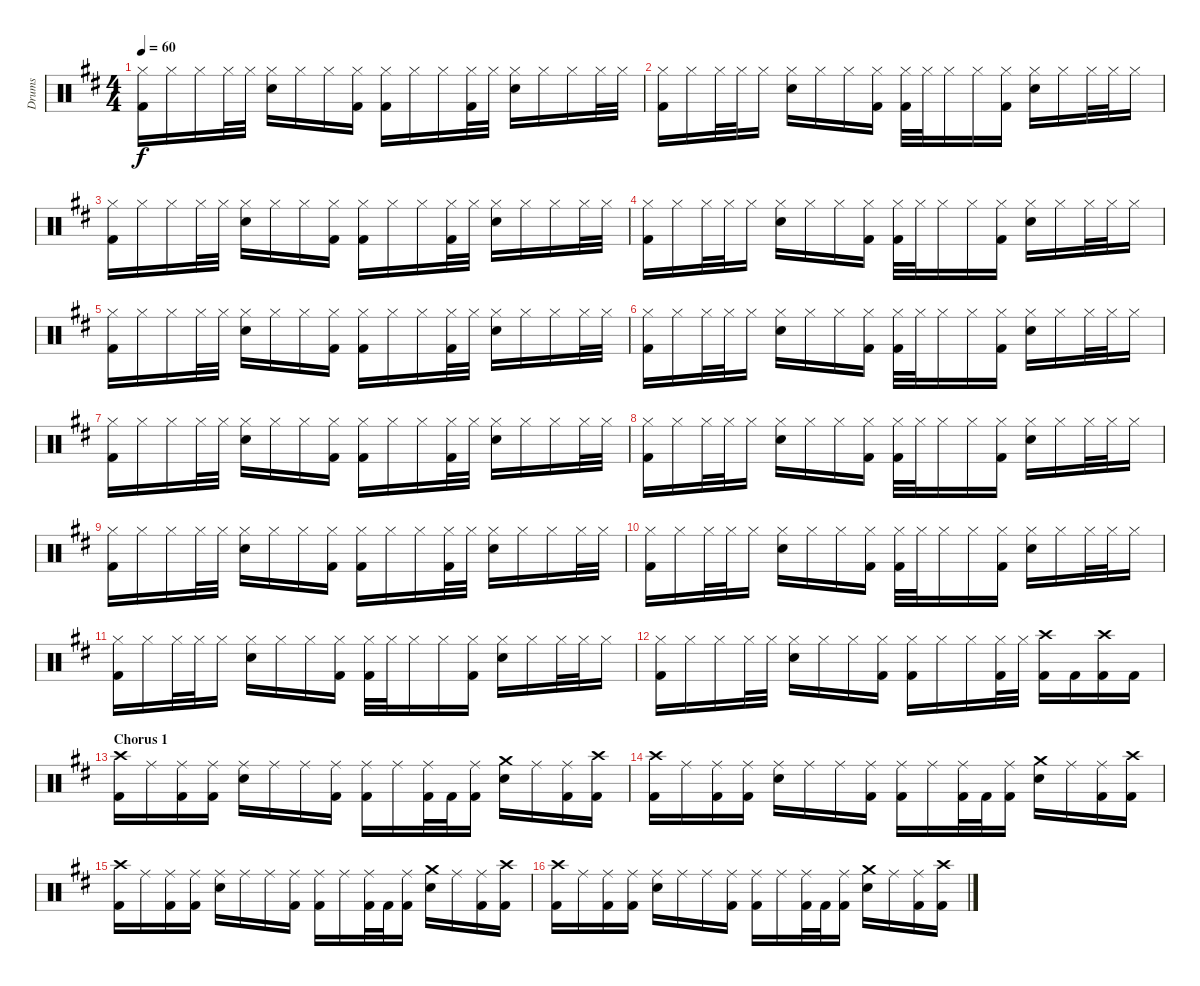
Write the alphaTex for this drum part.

\track ("Drums" "Drums") {instrument percussion}
\staff {score}
\articulation defaults
\ts (4 4)
\tempo 60
\clef neutral
\ks bminor
("Hi-Hat (closed)" "Kick (hit) 2").16{dy f} "Hi-Hat (closed)".16 "Hi-Hat (closed)".16 "Hi-Hat (closed)".32 "Hi-Hat (closed)".32 ("Hi-Hat (closed)" "Snare (hit) 2").16 "Hi-Hat (closed)".16 "Hi-Hat (closed)".16 ("Hi-Hat (closed)" "Kick (hit) 2").16 ("Hi-Hat (closed)" "Kick (hit) 2").16 "Hi-Hat (closed)".16 "Hi-Hat (closed)".16 ("Hi-Hat (closed)" "Kick (hit) 2").32 "Hi-Hat (closed)".32 ("Hi-Hat (closed)" "Snare (hit) 2").16 "Hi-Hat (closed)".16 "Hi-Hat (closed)".16 "Hi-Hat (closed)".32 "Hi-Hat (closed)".32 |
("Hi-Hat (closed)" "Kick (hit) 2").16 "Hi-Hat (closed)".16 "Hi-Hat (closed)".32 "Hi-Hat (closed)".32 "Hi-Hat (closed)".16 ("Hi-Hat (closed)" "Snare (hit) 2").16 "Hi-Hat (closed)".16 "Hi-Hat (closed)".16 ("Hi-Hat (closed)" "Kick (hit) 2").16 ("Hi-Hat (closed)" "Kick (hit) 2").32 "Hi-Hat (closed)".32 "Hi-Hat (closed)".16 "Hi-Hat (closed)".16 ("Hi-Hat (closed)" "Kick (hit) 2").16 ("Hi-Hat (closed)" "Snare (hit) 2").16 "Hi-Hat (closed)".16 "Hi-Hat (closed)".32 "Hi-Hat (closed)".32 "Hi-Hat (closed)".16 |
("Hi-Hat (closed)" "Kick (hit) 2").16 "Hi-Hat (closed)".16 "Hi-Hat (closed)".16 "Hi-Hat (closed)".32 "Hi-Hat (closed)".32 ("Hi-Hat (closed)" "Snare (hit) 2").16 "Hi-Hat (closed)".16 "Hi-Hat (closed)".16 ("Hi-Hat (closed)" "Kick (hit) 2").16 ("Hi-Hat (closed)" "Kick (hit) 2").16 "Hi-Hat (closed)".16 "Hi-Hat (closed)".16 ("Hi-Hat (closed)" "Kick (hit) 2").32 "Hi-Hat (closed)".32 ("Hi-Hat (closed)" "Snare (hit) 2").16 "Hi-Hat (closed)".16 "Hi-Hat (closed)".16 "Hi-Hat (closed)".32 "Hi-Hat (closed)".32 |
("Hi-Hat (closed)" "Kick (hit) 2").16 "Hi-Hat (closed)".16 "Hi-Hat (closed)".32 "Hi-Hat (closed)".32 "Hi-Hat (closed)".16 ("Hi-Hat (closed)" "Snare (hit) 2").16 "Hi-Hat (closed)".16 "Hi-Hat (closed)".16 ("Hi-Hat (closed)" "Kick (hit) 2").16 ("Hi-Hat (closed)" "Kick (hit) 2").32 "Hi-Hat (closed)".32 "Hi-Hat (closed)".16 "Hi-Hat (closed)".16 ("Hi-Hat (closed)" "Kick (hit) 2").16 ("Hi-Hat (closed)" "Snare (hit) 2").16 "Hi-Hat (closed)".16 "Hi-Hat (closed)".32 "Hi-Hat (closed)".32 "Hi-Hat (closed)".16 |
("Hi-Hat (closed)" "Kick (hit) 2").16 "Hi-Hat (closed)".16 "Hi-Hat (closed)".16 "Hi-Hat (closed)".32 "Hi-Hat (closed)".32 ("Hi-Hat (closed)" "Snare (hit) 2").16 "Hi-Hat (closed)".16 "Hi-Hat (closed)".16 ("Hi-Hat (closed)" "Kick (hit) 2").16 ("Hi-Hat (closed)" "Kick (hit) 2").16 "Hi-Hat (closed)".16 "Hi-Hat (closed)".16 ("Hi-Hat (closed)" "Kick (hit) 2").32 "Hi-Hat (closed)".32 ("Hi-Hat (closed)" "Snare (hit) 2").16 "Hi-Hat (closed)".16 "Hi-Hat (closed)".16 "Hi-Hat (closed)".32 "Hi-Hat (closed)".32 |
("Hi-Hat (closed)" "Kick (hit) 2").16 "Hi-Hat (closed)".16 "Hi-Hat (closed)".32 "Hi-Hat (closed)".32 "Hi-Hat (closed)".16 ("Hi-Hat (closed)" "Snare (hit) 2").16 "Hi-Hat (closed)".16 "Hi-Hat (closed)".16 ("Hi-Hat (closed)" "Kick (hit) 2").16 ("Hi-Hat (closed)" "Kick (hit) 2").32 "Hi-Hat (closed)".32 "Hi-Hat (closed)".16 "Hi-Hat (closed)".16 ("Hi-Hat (closed)" "Kick (hit) 2").16 ("Hi-Hat (closed)" "Snare (hit) 2").16 "Hi-Hat (closed)".16 "Hi-Hat (closed)".32 "Hi-Hat (closed)".32 "Hi-Hat (closed)".16 |
("Hi-Hat (closed)" "Kick (hit) 2").16 "Hi-Hat (closed)".16 "Hi-Hat (closed)".16 "Hi-Hat (closed)".32 "Hi-Hat (closed)".32 ("Hi-Hat (closed)" "Snare (hit) 2").16 "Hi-Hat (closed)".16 "Hi-Hat (closed)".16 ("Hi-Hat (closed)" "Kick (hit) 2").16 ("Hi-Hat (closed)" "Kick (hit) 2").16 "Hi-Hat (closed)".16 "Hi-Hat (closed)".16 ("Hi-Hat (closed)" "Kick (hit) 2").32 "Hi-Hat (closed)".32 ("Hi-Hat (closed)" "Snare (hit) 2").16 "Hi-Hat (closed)".16 "Hi-Hat (closed)".16 "Hi-Hat (closed)".32 "Hi-Hat (closed)".32 |
("Hi-Hat (closed)" "Kick (hit) 2").16 "Hi-Hat (closed)".16 "Hi-Hat (closed)".32 "Hi-Hat (closed)".32 "Hi-Hat (closed)".16 ("Hi-Hat (closed)" "Snare (hit) 2").16 "Hi-Hat (closed)".16 "Hi-Hat (closed)".16 ("Hi-Hat (closed)" "Kick (hit) 2").16 ("Hi-Hat (closed)" "Kick (hit) 2").32 "Hi-Hat (closed)".32 "Hi-Hat (closed)".16 "Hi-Hat (closed)".16 ("Hi-Hat (closed)" "Kick (hit) 2").16 ("Hi-Hat (closed)" "Snare (hit) 2").16 "Hi-Hat (closed)".16 "Hi-Hat (closed)".32 "Hi-Hat (closed)".32 "Hi-Hat (closed)".16 |
("Hi-Hat (closed)" "Kick (hit) 2").16 "Hi-Hat (closed)".16 "Hi-Hat (closed)".16 "Hi-Hat (closed)".32 "Hi-Hat (closed)".32 ("Hi-Hat (closed)" "Snare (hit) 2").16 "Hi-Hat (closed)".16 "Hi-Hat (closed)".16 ("Hi-Hat (closed)" "Kick (hit) 2").16 ("Hi-Hat (closed)" "Kick (hit) 2").16 "Hi-Hat (closed)".16 "Hi-Hat (closed)".16 ("Hi-Hat (closed)" "Kick (hit) 2").32 "Hi-Hat (closed)".32 ("Hi-Hat (closed)" "Snare (hit) 2").16 "Hi-Hat (closed)".16 "Hi-Hat (closed)".16 "Hi-Hat (closed)".32 "Hi-Hat (closed)".32 |
("Hi-Hat (closed)" "Kick (hit) 2").16 "Hi-Hat (closed)".16 "Hi-Hat (closed)".32 "Hi-Hat (closed)".32 "Hi-Hat (closed)".16 ("Hi-Hat (closed)" "Snare (hit) 2").16 "Hi-Hat (closed)".16 "Hi-Hat (closed)".16 ("Hi-Hat (closed)" "Kick (hit) 2").16 ("Hi-Hat (closed)" "Kick (hit) 2").32 "Hi-Hat (closed)".32 "Hi-Hat (closed)".16 "Hi-Hat (closed)".16 ("Hi-Hat (closed)" "Kick (hit) 2").16 ("Hi-Hat (closed)" "Snare (hit) 2").16 "Hi-Hat (closed)".16 "Hi-Hat (closed)".32 "Hi-Hat (closed)".32 "Hi-Hat (closed)".16 |
("Hi-Hat (closed)" "Kick (hit) 2").16 "Hi-Hat (closed)".16 "Hi-Hat (closed)".32 "Hi-Hat (closed)".32 "Hi-Hat (closed)".16 ("Hi-Hat (closed)" "Snare (hit) 2").16 "Hi-Hat (closed)".16 "Hi-Hat (closed)".16 ("Hi-Hat (closed)" "Kick (hit) 2").16 ("Hi-Hat (closed)" "Kick (hit) 2").32 "Hi-Hat (closed)".32 "Hi-Hat (closed)".16 "Hi-Hat (closed)".16 ("Hi-Hat (closed)" "Kick (hit) 2").16 ("Hi-Hat (closed)" "Snare (hit) 2").16 "Hi-Hat (closed)".16 "Hi-Hat (closed)".32 "Hi-Hat (closed)".32 "Hi-Hat (closed)".16 |
("Hi-Hat (closed)" "Kick (hit) 2").16 "Hi-Hat (closed)".16 "Hi-Hat (closed)".16 "Hi-Hat (closed)".32 "Hi-Hat (closed)".32 ("Hi-Hat (closed)" "Snare (hit) 2").16 "Hi-Hat (closed)".16 "Hi-Hat (closed)".16 ("Hi-Hat (closed)" "Kick (hit) 2").16 ("Hi-Hat (closed)" "Kick (hit) 2").16 "Hi-Hat (closed)".16 "Hi-Hat (closed)".16 ("Hi-Hat (closed)" "Kick (hit) 2").32 "Hi-Hat (closed)".32 ("Crash high (hit)" "Kick (hit) 2").16 "Kick (hit) 2".16 ("Crash high (hit)" "Kick (hit) 2").16 "Kick (hit) 2".16 |
\section ("" "Chorus 1")
("Crash high (hit)" "Kick (hit) 2").16 "Ride (middle)".16 ("Ride (middle)" "Kick (hit) 2").16 ("Ride (middle)" "Kick (hit) 2").16 ("Ride (middle)" "Snare (hit) 2").16 "Ride (middle)".16 "Ride (middle)".16 ("Ride (middle)" "Kick (hit) 2").16 ("Ride (middle)" "Kick (hit) 2").16 "Ride (middle)".16 ("Ride (middle)" "Kick (hit) 2").32 "Kick (hit) 2".32 ("Ride (middle)" "Kick (hit) 2").16 ("Crash medium (hit)" "Snare (hit) 2").16 "Ride (middle)".16 ("Ride (middle)" "Kick (hit) 2").16 ("Crash high (hit)" "Kick (hit) 2").16 |
("Crash high (hit)" "Kick (hit) 2").16 "Ride (middle)".16 ("Ride (middle)" "Kick (hit) 2").16 ("Ride (middle)" "Kick (hit) 2").16 ("Ride (middle)" "Snare (hit) 2").16 "Ride (middle)".16 "Ride (middle)".16 ("Ride (middle)" "Kick (hit) 2").16 ("Ride (middle)" "Kick (hit) 2").16 "Ride (middle)".16 ("Ride (middle)" "Kick (hit) 2").32 "Kick (hit) 2".32 ("Ride (middle)" "Kick (hit) 2").16 ("Crash medium (hit)" "Snare (hit) 2").16 "Ride (middle)".16 ("Ride (middle)" "Kick (hit) 2").16 ("Crash high (hit)" "Kick (hit) 2").16 |
("Crash high (hit)" "Kick (hit) 2").16 "Ride (middle)".16 ("Ride (middle)" "Kick (hit) 2").16 ("Ride (middle)" "Kick (hit) 2").16 ("Ride (middle)" "Snare (hit) 2").16 "Ride (middle)".16 "Ride (middle)".16 ("Ride (middle)" "Kick (hit) 2").16 ("Ride (middle)" "Kick (hit) 2").16 "Ride (middle)".16 ("Ride (middle)" "Kick (hit) 2").32 "Kick (hit) 2".32 ("Ride (middle)" "Kick (hit) 2").16 ("Crash medium (hit)" "Snare (hit) 2").16 "Ride (middle)".16 ("Ride (middle)" "Kick (hit) 2").16 ("Crash high (hit)" "Kick (hit) 2").16 |
("Crash high (hit)" "Kick (hit) 2").16 "Ride (middle)".16 ("Ride (middle)" "Kick (hit) 2").16 ("Ride (middle)" "Kick (hit) 2").16 ("Ride (middle)" "Snare (hit) 2").16 "Ride (middle)".16 "Ride (middle)".16 ("Ride (middle)" "Kick (hit) 2").16 ("Ride (middle)" "Kick (hit) 2").16 "Ride (middle)".16 ("Ride (middle)" "Kick (hit) 2").32 "Kick (hit) 2".32 ("Ride (middle)" "Kick (hit) 2").16 ("Crash medium (hit)" "Snare (hit) 2").16 "Ride (middle)".16 ("Ride (middle)" "Kick (hit) 2").16 ("Crash high (hit)" "Kick (hit) 2").16
